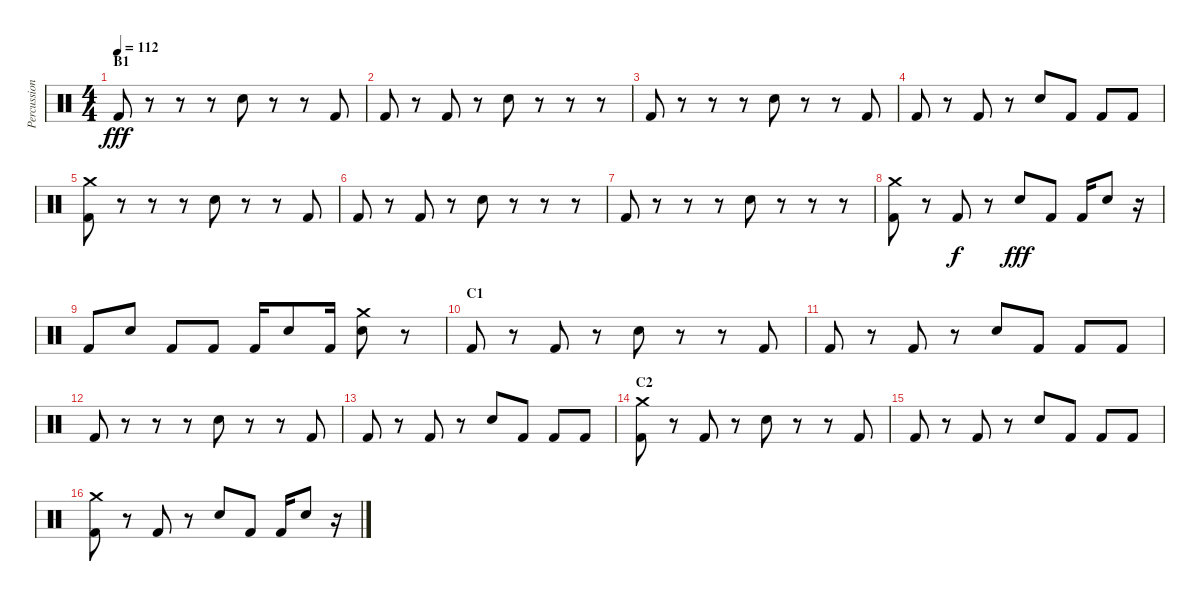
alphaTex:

\track ("Percussion" "Percussion") {instrument percussion}
\staff {score}
\articulation defaults
\ts (4 4)
\section ("" "B1")
\tempo 112
\clef neutral
\ks c "Kick (hit) 2".8{dy fff}
r.8 r.8 r.8 "Electric Snare (hit)".8 r.8 r.8 "Kick (hit) 2".8 |
"Kick (hit) 2".8 r.8 "Kick (hit) 2".8 r.8 "Electric Snare (hit)".8 r.8 r.8 r.8 |
"Kick (hit) 2".8 r.8 r.8 r.8 "Electric Snare (hit)".8 r.8 r.8 "Kick (hit) 2".8 |
"Kick (hit) 2".8 r.8 "Kick (hit) 2".8 r.8 "Electric Snare (hit)".8 "Kick (hit) 2".8 "Kick (hit) 2".8 "Kick (hit) 2".8 |
("Kick (hit) 2" "Crash medium (hit)").8 r.8 r.8 r.8 "Electric Snare (hit)".8 r.8 r.8 "Kick (hit) 2".8 |
"Kick (hit) 2".8 r.8 "Kick (hit) 2".8 r.8 "Electric Snare (hit)".8 r.8 r.8 r.8 |
"Kick (hit) 2".8 r.8 r.8 r.8 "Electric Snare (hit)".8 r.8 r.8 r.8 |
("Kick (hit) 2" "Crash medium (hit)").8 r.8 "Kick (hit) 2".8{dy f} r.8 "Electric Snare (hit)".8{dy fff} "Kick (hit) 2".8 "Kick (hit) 2".16 "Electric Snare (hit)".8 r.16 |
"Kick (hit) 2".8 "Electric Snare (hit)".8 "Kick (hit) 2".8 "Kick (hit) 2".8 "Kick (hit) 2".16 "Electric Snare (hit)".8 "Kick (hit) 2".16 ("Electric Snare (hit)" "Crash medium (hit)").8 r.8 |
\section ("" "C1")
"Kick (hit) 2".8 r.8 "Kick (hit) 2".8 r.8 "Electric Snare (hit)".8 r.8 r.8 "Kick (hit) 2".8 |
"Kick (hit) 2".8 r.8 "Kick (hit) 2".8 r.8 "Electric Snare (hit)".8 "Kick (hit) 2".8 "Kick (hit) 2".8 "Kick (hit) 2".8 |
"Kick (hit) 2".8 r.8 r.8 r.8 "Electric Snare (hit)".8 r.8 r.8 "Kick (hit) 2".8 |
"Kick (hit) 2".8 r.8 "Kick (hit) 2".8 r.8 "Electric Snare (hit)".8 "Kick (hit) 2".8 "Kick (hit) 2".8 "Kick (hit) 2".8 |
\section ("" "C2")
("Kick (hit) 2" "Crash medium (hit)").8 r.8 "Kick (hit) 2".8 r.8 "Electric Snare (hit)".8 r.8 r.8 "Kick (hit) 2".8 |
"Kick (hit) 2".8 r.8 "Kick (hit) 2".8 r.8 "Electric Snare (hit)".8 "Kick (hit) 2".8 "Kick (hit) 2".8 "Kick (hit) 2".8 |
("Kick (hit) 2" "Crash medium (hit)").8 r.8 "Kick (hit) 2".8 r.8 "Electric Snare (hit)".8 "Kick (hit) 2".8 "Kick (hit) 2".16 "Electric Snare (hit)".8 r.16
